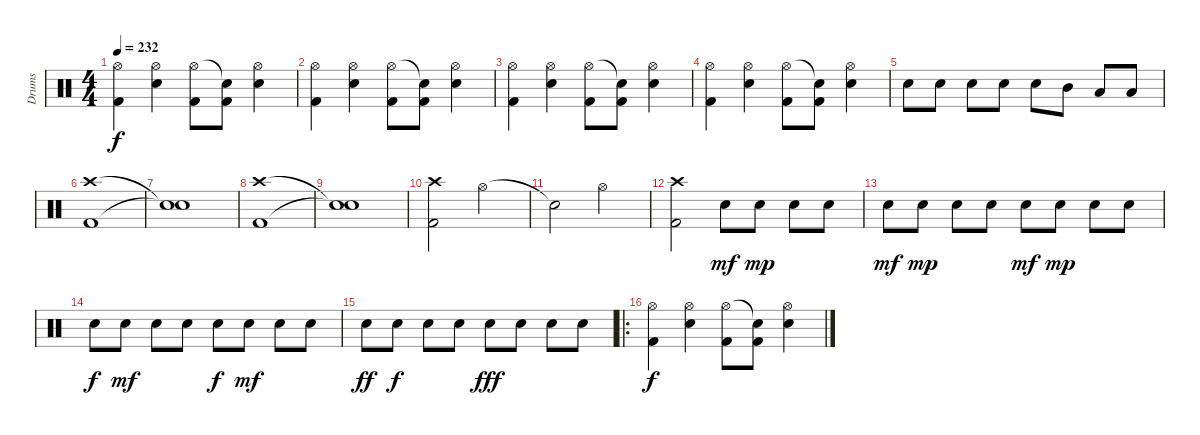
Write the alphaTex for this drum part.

\track ("Drums" "Drums") {instrument percussion}
\staff {score}
\articulation defaults
\ts (4 4)
\tempo 232
\clef neutral
\ks c
("Hi-Hat (open)" "Kick (hit) 2").4{dy f} ("Hi-Hat (open)" "Snare (hit) 2").4 ("Hi-Hat (open)" "Kick (hit) 2").8 ("Snare (hit)"{t} "Kick (hit) 2").8 ("Hi-Hat (open)" "Snare (hit) 2").4 |
("Hi-Hat (open)" "Kick (hit) 2").4 ("Hi-Hat (open)" "Snare (hit) 2").4 ("Hi-Hat (open)" "Kick (hit) 2").8 ("Snare (hit)"{t} "Kick (hit) 2").8 ("Hi-Hat (open)" "Snare (hit) 2").4 |
("Hi-Hat (open)" "Kick (hit) 2").4 ("Hi-Hat (open)" "Snare (hit) 2").4 ("Hi-Hat (open)" "Kick (hit) 2").8 ("Snare (hit)"{t} "Kick (hit) 2").8 ("Hi-Hat (open)" "Snare (hit) 2").4 |
("Hi-Hat (open)" "Kick (hit) 2").4 ("Hi-Hat (open)" "Snare (hit) 2").4 ("Hi-Hat (open)" "Kick (hit) 2").8 ("Snare (hit)"{t} "Kick (hit) 2").8 ("Hi-Hat (open)" "Snare (hit) 2").4 |
"Snare (hit) 2".8 "Snare (hit) 2".8 "Snare (hit) 2".8 "Snare (hit) 2".8 "Snare (hit) 2".8 "Mid Tom (hit)".8 "Low Floor Tom (hit)".8 "Low Floor Tom (hit)".8 |
("Crash high (hit)" "Kick (hit) 2").1 |
("Snare (hit)"{t} "Snare (hit)"{t}).1 |
("Crash high (hit)" "Kick (hit) 2").1 |
("Snare (hit)"{t} "Snare (hit)"{t}).1 |
("Crash high (hit)" "Kick (hit) 2").2 "Hi-Hat (open)".2 |
"Snare (hit)"{t}.2 "Hi-Hat (open)".2 |
("Crash high (hit)" "Kick (hit) 2").2 "Snare (hit) 2".8{dy mf} "Snare (hit) 2".8{dy mp} "Snare (hit) 2".8 "Snare (hit) 2".8 |
"Snare (hit) 2".8{dy mf} "Snare (hit) 2".8{dy mp} "Snare (hit) 2".8 "Snare (hit) 2".8 "Snare (hit) 2".8{dy mf} "Snare (hit) 2".8{dy mp} "Snare (hit) 2".8 "Snare (hit) 2".8 |
"Snare (hit) 2".8{dy f} "Snare (hit) 2".8{dy mf} "Snare (hit) 2".8 "Snare (hit) 2".8 "Snare (hit) 2".8{dy f} "Snare (hit) 2".8{dy mf} "Snare (hit) 2".8 "Snare (hit) 2".8 |
"Snare (hit) 2".8{dy ff} "Snare (hit) 2".8{dy f} "Snare (hit) 2".8 "Snare (hit) 2".8 "Snare (hit) 2".8{dy fff} "Snare (hit) 2".8 "Snare (hit) 2".8 "Snare (hit) 2".8 |
\ro
("Hi-Hat (open)" "Kick (hit) 2").4{dy f} ("Hi-Hat (open)" "Snare (hit) 2").4 ("Hi-Hat (open)" "Kick (hit) 2").8 ("Snare (hit)"{t} "Kick (hit) 2").8 ("Hi-Hat (open)" "Snare (hit) 2").4
